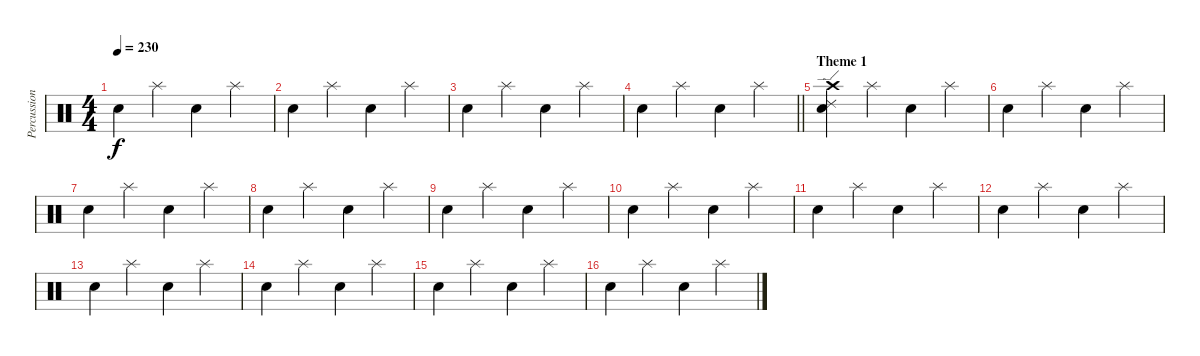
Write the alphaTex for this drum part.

\track ("Percussion" "Percussion") {instrument percussion}
\staff {score}
\articulation defaults
\ts (4 4)
\tempo 230
\clef neutral
\ks c "Snare (hit) 2".4{dy f} "Splash (hit)".4 "Snare (hit) 2".4 "Splash (hit)".4
|
"Snare (hit) 2".4 "Splash (hit)".4 "Snare (hit) 2".4 "Splash (hit)".4 |
"Snare (hit) 2".4 "Splash (hit)".4 "Snare (hit) 2".4 "Splash (hit)".4 |
\barLineRight lightlight "Snare (hit) 2".4 "Splash (hit)".4 "Snare (hit) 2".4 "Splash (hit)".4
|
\section ("" "Theme 1")
("Crash high (hit)" "Ride (edge) 2" "Snare (hit) 2").4 "Splash (hit)".4 "Snare (hit) 2".4 "Splash (hit)".4 |
"Snare (hit) 2".4 "Splash (hit)".4 "Snare (hit) 2".4 "Splash (hit)".4 |
"Snare (hit) 2".4 "Splash (hit)".4 "Snare (hit) 2".4 "Splash (hit)".4 |
"Snare (hit) 2".4 "Splash (hit)".4 "Snare (hit) 2".4 "Splash (hit)".4 |
"Snare (hit) 2".4 "Splash (hit)".4 "Snare (hit) 2".4 "Splash (hit)".4 |
"Snare (hit) 2".4 "Splash (hit)".4 "Snare (hit) 2".4 "Splash (hit)".4 |
"Snare (hit) 2".4 "Splash (hit)".4 "Snare (hit) 2".4 "Splash (hit)".4 |
"Snare (hit) 2".4 "Splash (hit)".4 "Snare (hit) 2".4 "Splash (hit)".4 |
"Snare (hit) 2".4 "Splash (hit)".4 "Snare (hit) 2".4 "Splash (hit)".4 |
"Snare (hit) 2".4 "Splash (hit)".4 "Snare (hit) 2".4 "Splash (hit)".4 |
"Snare (hit) 2".4 "Splash (hit)".4 "Snare (hit) 2".4 "Splash (hit)".4 |
"Snare (hit) 2".4 "Splash (hit)".4 "Snare (hit) 2".4 "Splash (hit)".4
